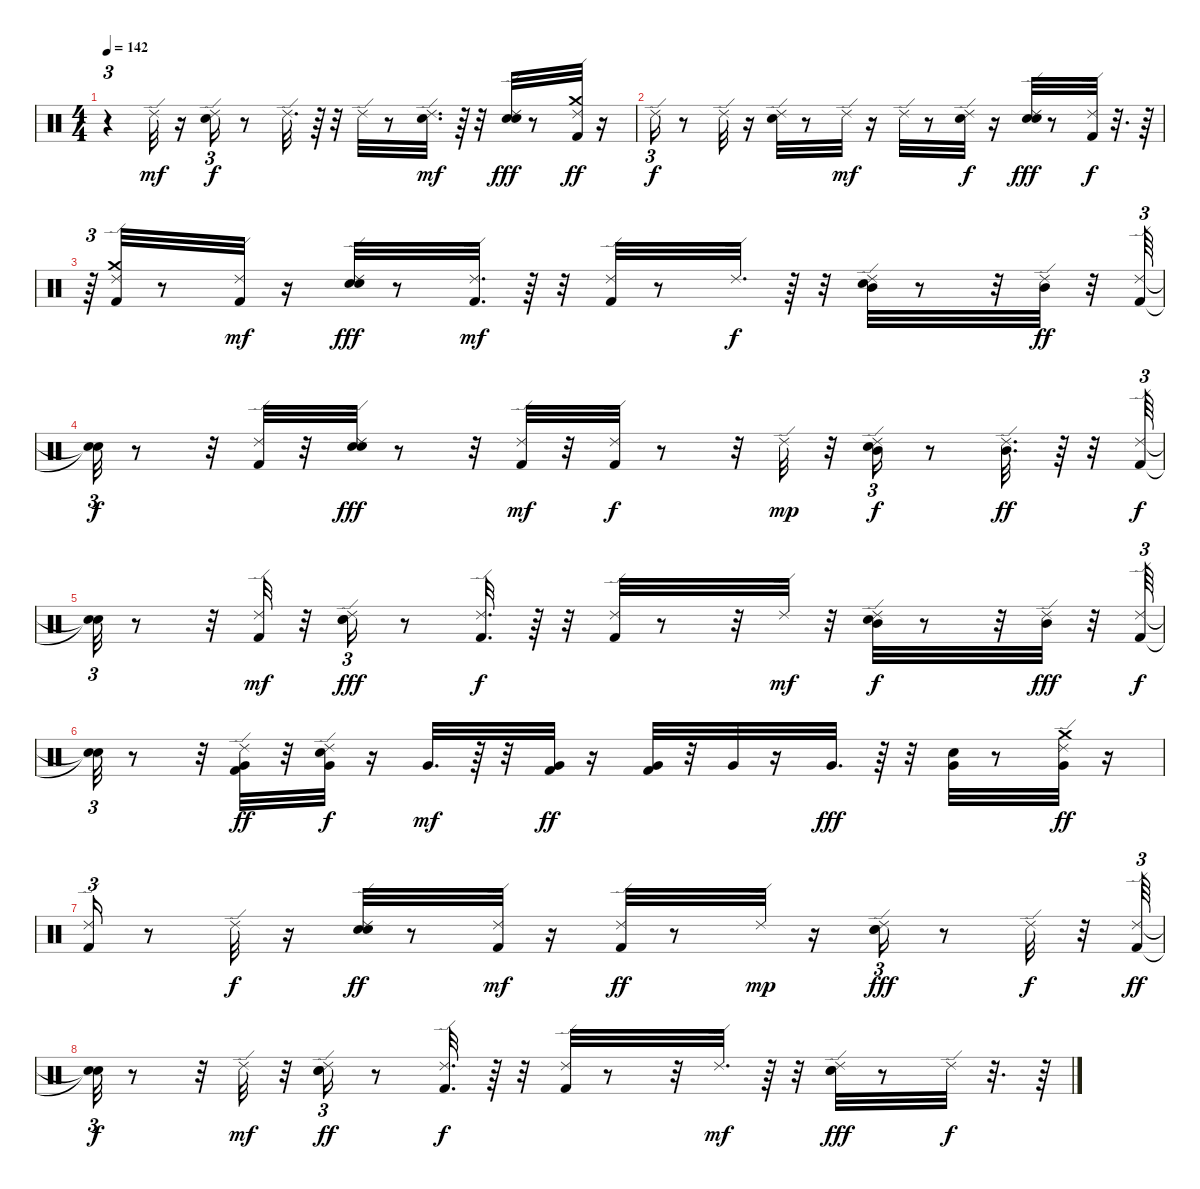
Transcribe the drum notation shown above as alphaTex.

\track "" {instrument percussion}
\staff {score}
\articulation defaults
\ts (4 4)
\tempo 142
\clef neutral
\ks c
r.4{tu (3 2) dy ff} "Ride (edge) 2".32{dy mf} r.16 ("Hand Clap (hit)" "Ride (edge) 2").16{tu (3 2) dy f} r.8 "Ride (edge) 2".32{d} r.64 r.32 "Ride (edge) 2".32 r.8 ("Electric Snare (hit)" "Ride (edge) 2").32{d dy mf} r.64 r.32 ("Hand Clap (hit)" "Electric Snare (hit)" "Ride (edge) 2").32{dy fff} r.8 ("Ride (edge) 2" "Crash medium (hit)" "Kick (hit) 2").32{dy ff} r.16 |
"Ride (edge) 2".16{tu (3 2) dy f} r.8 "Ride (edge) 2".32 r.16 ("Hand Clap (hit)" "Ride (edge) 2").32 r.8 "Ride (edge) 2".32{dy mf} r.16 "Ride (edge) 2".32 r.8 ("Electric Snare (hit)" "Ride (edge) 2").32{dy f} r.16 ("Electric Snare (hit)" "Hand Clap (hit)" "Ride (edge) 2").32{dy fff} r.8 ("Ride (edge) 2" "Kick (hit) 2").32{dy f} r.32{d} r.64 |
r.64{tu (3 2)} ("Crash medium (hit)" "Kick (hit) 2" "Ride (edge) 2").32 r.8 ("Kick (hit) 2" "Ride (edge) 2").32{dy mf} r.16 ("Hand Clap (hit)" "Electric Snare (hit)" "Ride (edge) 2").32{dy fff} r.8 ("Kick (hit) 2" "Ride (edge) 2").32{d dy mf} r.64 r.32 ("Kick (hit) 2" "Ride (edge) 2").32 r.8 "Ride (edge) 2".32{d dy f} r.64 r.32 ("Mid Tom (hit)" "Hand Clap (hit)" "Ride (edge) 2").32 r.8 r.32 ("Ride (edge) 2" "Mid Tom (hit)").32{dy ff} r.32 ("Ride (edge) 2" "Kick (hit) 2").64{tu (3 2)} |
("Snare (hit)"{t} "Snare (hit)"{t}).32{tu (3 2) dy f} r.8 r.32 ("Kick (hit) 2" "Ride (edge) 2").32 r.32 ("Electric Snare (hit)" "Hand Clap (hit)" "Ride (edge) 2").32{dy fff} r.8 r.32 ("Kick (hit) 2" "Ride (edge) 2").32{dy mf} r.32 ("Kick (hit) 2" "Ride (edge) 2").32{dy f} r.8 r.32 "Ride (edge) 2".32{dy mp} r.32 ("Mid Tom (hit)" "Hand Clap (hit)" "Ride (edge) 2").16{tu (3 2) dy f} r.8 ("Ride (edge) 2" "Mid Tom (hit)").32{d dy ff} r.64 r.32 ("Kick (hit) 2" "Ride (edge) 2").64{tu (3 2) dy f} |
("Snare (hit)"{t} "Snare (hit)"{t}).32{tu (3 2)} r.8 r.32 ("Kick (hit) 2" "Ride (edge) 2").32{dy mf} r.32 ("Electric Snare (hit)" "Hand Clap (hit)" "Ride (edge) 2").16{tu (3 2) dy fff} r.8 ("Kick (hit) 2" "Ride (edge) 2").32{d dy f} r.64 r.32 ("Kick (hit) 2" "Ride (edge) 2").32 r.8 r.32 "Ride (edge) 2".32{dy mf} r.32 ("Mid Tom (hit)" "Hand Clap (hit)" "Ride (edge) 2").32{dy f} r.8 r.32 ("Ride (edge) 2" "Mid Tom (hit)").32{dy fff} r.32 ("Kick (hit) 2" "Ride (edge) 2").64{tu (3 2) dy f} |
("Snare (hit)"{t} "Snare (hit)"{t}).32{tu (3 2)} r.8 r.32 ("Very Low Tom (hit)" "Kick (hit) 2" "Ride (edge) 2").32{dy ff} r.32 ("Hand Clap (hit)" "Very Low Tom (hit)" "Ride (edge) 2").32{dy f} r.16 "Very Low Tom (hit)".32{d dy mf} r.64 r.32 ("Very Low Tom (hit)" "Kick (hit) 2").32{dy ff} r.16 ("Very Low Tom (hit)" "Kick (hit) 2").32 r.32 "Very Low Tom (hit)".32 r.16 "Very Low Tom (hit)".32{d dy fff} r.64 r.32 ("Very Low Tom (hit)" "Hand Clap (hit)").32 r.8 ("Very Low Tom (hit)" "Ride (edge) 2" "Crash medium (hit)").32{dy ff} r.16 |
("Ride (edge) 2" "Kick (hit) 2").16{tu (3 2)} r.8 "Ride (edge) 2".32{dy f} r.16 ("Hand Clap (hit)" "Electric Snare (hit)" "Ride (edge) 2").32{dy ff} r.8 ("Kick (hit) 2" "Ride (edge) 2").32{dy mf} r.16 ("Kick (hit) 2" "Ride (edge) 2").32{dy ff} r.8 "Ride (edge) 2".32{dy mp} r.16 ("Hand Clap (hit)" "Electric Snare (hit)" "Ride (edge) 2").16{tu (3 2) dy fff} r.8 "Ride (edge) 2".32{dy f} r.32 ("Kick (hit) 2" "Ride (edge) 2").64{tu (3 2) dy ff} |
("Snare (hit)"{t} "Snare (hit)"{t}).32{tu (3 2) dy f} r.8 r.32 "Ride (edge) 2".32{dy mf} r.32 ("Hand Clap (hit)" "Electric Snare (hit)" "Ride (edge) 2").16{tu (3 2) dy ff} r.8 ("Kick (hit) 2" "Ride (edge) 2").32{d dy f} r.64 r.32 ("Kick (hit) 2" "Ride (edge) 2").32 r.8 r.32 "Ride (edge) 2".32{d dy mf} r.64 r.32 ("Hand Clap (hit)" "Electric Snare (hit)" "Ride (edge) 2").32{dy fff} r.8 "Ride (edge) 2".32{dy f} r.32{d} r.64
